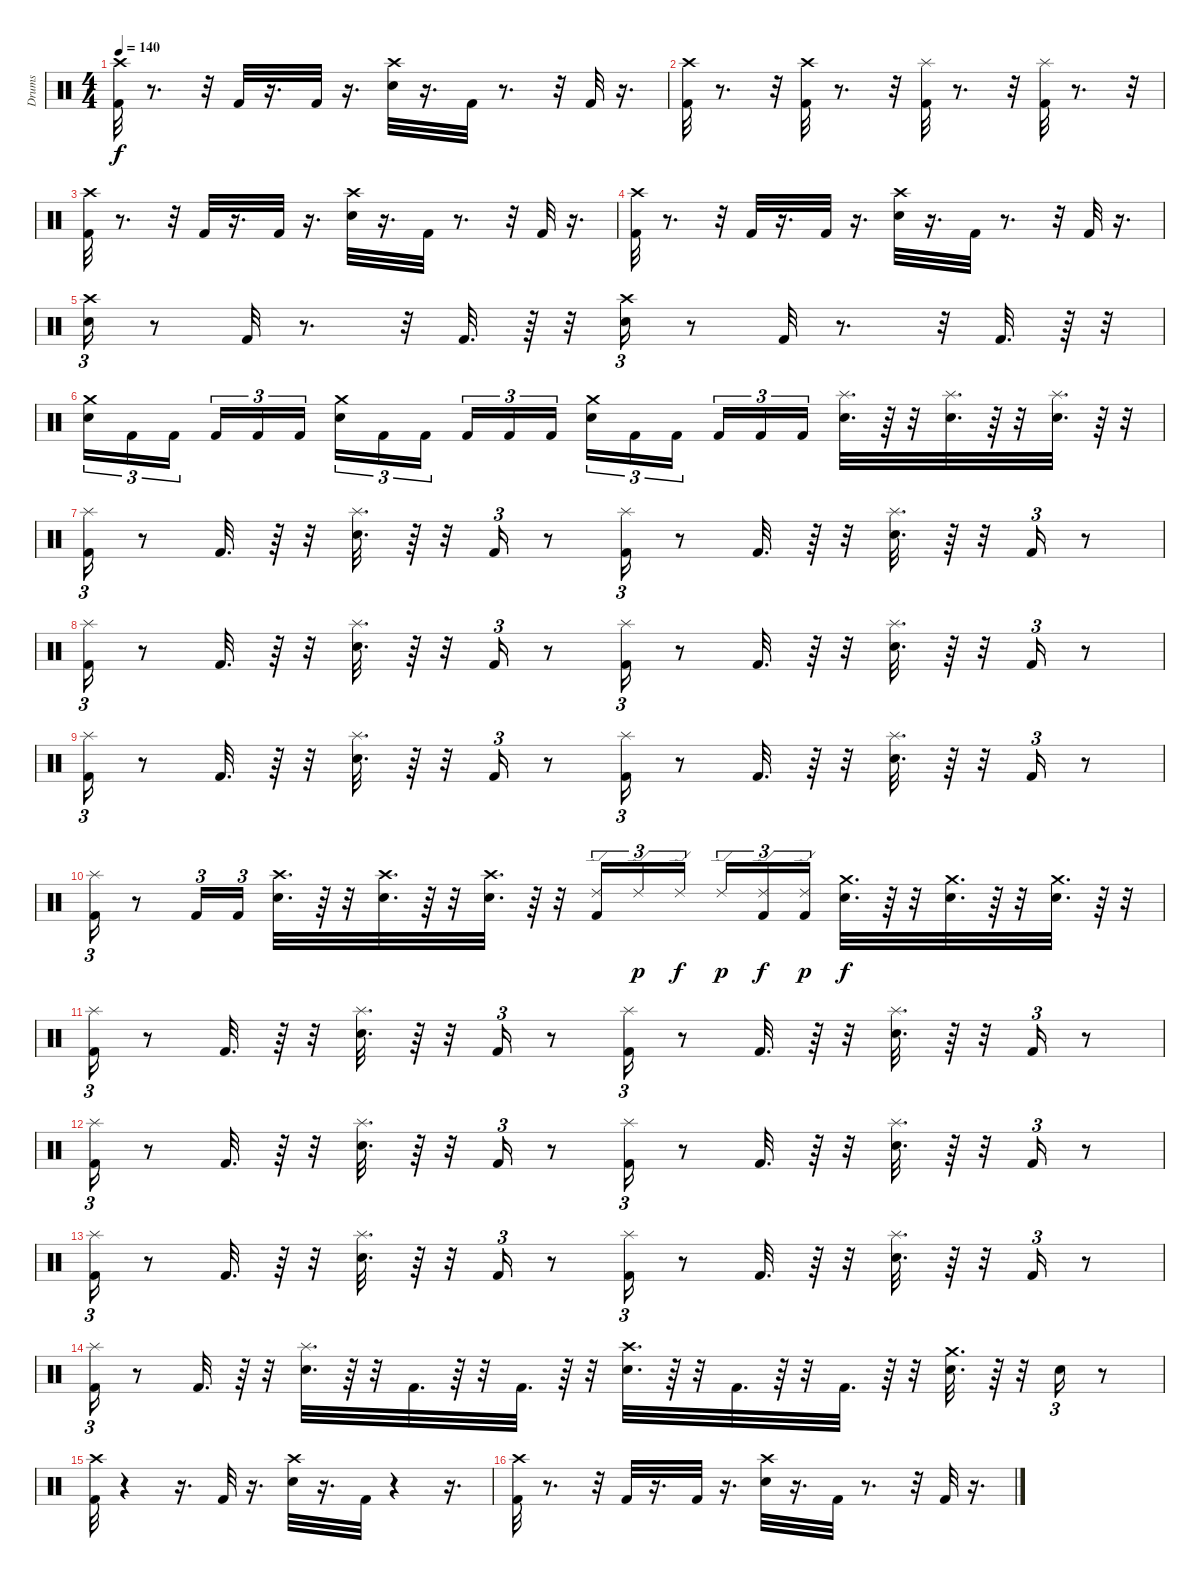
\track ("Drums" "Drums") {instrument percussion}
\staff {score}
\articulation defaults
\ts (4 4)
\tempo 140
\clef neutral
\ks c
("Kick (hit) 2" "Crash high (hit)").32{dy f} r.8{d} r.32 "Kick (hit) 2".32 r.16{d} "Kick (hit) 2".32 r.16{d} ("Electric Snare (hit)" "Crash high (hit)").32 r.16{d} "Kick (hit) 2".32 r.8{d} r.32 "Kick (hit) 2".32 r.16{d} |
("Kick (hit) 2" "Crash high (hit)").32 r.8{d} r.32 ("Kick (hit) 2" "Crash high (hit)").32 r.8{d} r.32 ("Kick (hit) 2" "Splash (hit)").32 r.8{d} r.32 ("Kick (hit) 2" "Splash (hit)").32 r.8{d} r.32 |
("Kick (hit) 2" "Crash high (hit)").32 r.8{d} r.32 "Kick (hit) 2".32 r.16{d} "Kick (hit) 2".32 r.16{d} ("Electric Snare (hit)" "Crash high (hit)").32 r.16{d} "Kick (hit) 2".32 r.8{d} r.32 "Kick (hit) 2".32 r.16{d} |
("Kick (hit) 2" "Crash high (hit)").32 r.8{d} r.32 "Kick (hit) 2".32 r.16{d} "Kick (hit) 2".32 r.16{d} ("Electric Snare (hit)" "Crash high (hit)").32 r.16{d} "Kick (hit) 2".32 r.8{d} r.32 "Kick (hit) 2".32 r.16{d} |
("Electric Snare (hit)" "Crash high (hit)").16{tu (3 2)} r.8 "Kick (hit) 2".32 r.8{d} r.32 "Kick (hit) 2".32{d} r.64 r.32 ("Electric Snare (hit)" "Crash high (hit)").16{tu (3 2)} r.8 "Kick (hit) 2".32 r.8{d} r.32 "Kick (hit) 2".32{d} r.64 r.32 |
("Electric Snare (hit)" "Crash medium (hit)").16{tu (3 2)} "Kick (hit) 2".16{tu (3 2)} "Kick (hit) 2".16{tu (3 2) beam splitsecondary} "Kick (hit) 2".16{tu (3 2)} "Kick (hit) 2".16{tu (3 2)} "Kick (hit) 2".16{tu (3 2)} ("Electric Snare (hit)" "Crash medium (hit)").16{tu (3 2)} "Kick (hit) 2".16{tu (3 2)} "Kick (hit) 2".16{tu (3 2) beam splitsecondary} "Kick (hit) 2".16{tu (3 2)} "Kick (hit) 2".16{tu (3 2)} "Kick (hit) 2".16{tu (3 2)} ("Electric Snare (hit)" "Crash medium (hit)").16{tu (3 2)} "Kick (hit) 2".16{tu (3 2)} "Kick (hit) 2".16{tu (3 2) beam splitsecondary} "Kick (hit) 2".16{tu (3 2)} "Kick (hit) 2".16{tu (3 2)} "Kick (hit) 2".16{tu (3 2)} ("Electric Snare (hit)" "Splash (hit)").32{d} r.64 r.32 ("Electric Snare (hit)" "Splash (hit)").32{d} r.64 r.32 ("Electric Snare (hit)" "Splash (hit)").32{d} r.64 r.32 |
("Kick (hit) 2" "Splash (hit)").16{tu (3 2)} r.8 "Kick (hit) 2".32{d} r.64 r.32 ("Electric Snare (hit)" "Splash (hit)").32{d} r.64 r.32 "Kick (hit) 2".16{tu (3 2)} r.8 ("Kick (hit) 2" "Splash (hit)").16{tu (3 2)} r.8 "Kick (hit) 2".32{d} r.64 r.32 ("Electric Snare (hit)" "Splash (hit)").32{d} r.64 r.32 "Kick (hit) 2".16{tu (3 2)} r.8 |
("Kick (hit) 2" "Splash (hit)").16{tu (3 2)} r.8 "Kick (hit) 2".32{d} r.64 r.32 ("Electric Snare (hit)" "Splash (hit)").32{d} r.64 r.32 "Kick (hit) 2".16{tu (3 2)} r.8 ("Kick (hit) 2" "Splash (hit)").16{tu (3 2)} r.8 "Kick (hit) 2".32{d} r.64 r.32 ("Electric Snare (hit)" "Splash (hit)").32{d} r.64 r.32 "Kick (hit) 2".16{tu (3 2)} r.8 |
("Kick (hit) 2" "Splash (hit)").16{tu (3 2)} r.8 "Kick (hit) 2".32{d} r.64 r.32 ("Electric Snare (hit)" "Splash (hit)").32{d} r.64 r.32 "Kick (hit) 2".16{tu (3 2)} r.8 ("Kick (hit) 2" "Splash (hit)").16{tu (3 2)} r.8 "Kick (hit) 2".32{d} r.64 r.32 ("Electric Snare (hit)" "Splash (hit)").32{d} r.64 r.32 "Kick (hit) 2".16{tu (3 2)} r.8 |
("Kick (hit) 2" "Splash (hit)").16{tu (3 2)} r.8 "Kick (hit) 2".16{tu (3 2)} "Kick (hit) 2".16{tu (3 2)} ("Electric Snare (hit)" "Crash high (hit)").32{d} r.64 r.32 ("Electric Snare (hit)" "Crash high (hit)").32{d} r.64 r.32 ("Electric Snare (hit)" "Crash high (hit)").32{d} r.64 r.32 ("Kick (hit) 2" "Ride (edge) 2").16{tu (3 2)} "Ride (edge) 2".16{tu (3 2) dy p} "Ride (edge) 2".16{tu (3 2) dy f beam splitsecondary} "Ride (edge) 2".16{tu (3 2) dy p} ("Kick (hit) 2" "Ride (edge) 2").16{tu (3 2) dy f} ("Kick (hit) 2" "Ride (edge) 2").16{tu (3 2) dy p} ("Electric Snare (hit)" "Crash medium (hit)").32{d dy f} r.64 r.32 ("Electric Snare (hit)" "Crash medium (hit)").32{d} r.64 r.32 ("Electric Snare (hit)" "Crash medium (hit)").32{d} r.64 r.32 |
("Kick (hit) 2" "Splash (hit)").16{tu (3 2)} r.8 "Kick (hit) 2".32{d} r.64 r.32 ("Electric Snare (hit)" "Splash (hit)").32{d} r.64 r.32 "Kick (hit) 2".16{tu (3 2)} r.8 ("Kick (hit) 2" "Splash (hit)").16{tu (3 2)} r.8 "Kick (hit) 2".32{d} r.64 r.32 ("Electric Snare (hit)" "Splash (hit)").32{d} r.64 r.32 "Kick (hit) 2".16{tu (3 2)} r.8 |
("Kick (hit) 2" "Splash (hit)").16{tu (3 2)} r.8 "Kick (hit) 2".32{d} r.64 r.32 ("Electric Snare (hit)" "Splash (hit)").32{d} r.64 r.32 "Kick (hit) 2".16{tu (3 2)} r.8 ("Kick (hit) 2" "Splash (hit)").16{tu (3 2)} r.8 "Kick (hit) 2".32{d} r.64 r.32 ("Electric Snare (hit)" "Splash (hit)").32{d} r.64 r.32 "Kick (hit) 2".16{tu (3 2)} r.8 |
("Kick (hit) 2" "Splash (hit)").16{tu (3 2)} r.8 "Kick (hit) 2".32{d} r.64 r.32 ("Electric Snare (hit)" "Splash (hit)").32{d} r.64 r.32 "Kick (hit) 2".16{tu (3 2)} r.8 ("Kick (hit) 2" "Splash (hit)").16{tu (3 2)} r.8 "Kick (hit) 2".32{d} r.64 r.32 ("Electric Snare (hit)" "Splash (hit)").32{d} r.64 r.32 "Kick (hit) 2".16{tu (3 2)} r.8 |
("Kick (hit) 2" "Splash (hit)").16{tu (3 2)} r.8 "Kick (hit) 2".32{d} r.64 r.32 ("Electric Snare (hit)" "Splash (hit)").32{d} r.64 r.32 "Kick (hit) 2".32{d} r.64 r.32 "Kick (hit) 2".32{d} r.64 r.32 ("Electric Snare (hit)" "Crash high (hit)").32{d} r.64 r.32 "Kick (hit) 2".32{d} r.64 r.32 "Kick (hit) 2".32{d} r.64 r.32 ("Electric Snare (hit)" "Crash medium (hit)").32{d} r.64 r.32 "Electric Snare (hit)".16{tu (3 2)} r.8 |
("Kick (hit) 2" "Crash high (hit)").32 r.4 r.16{d} "Kick (hit) 2".32 r.16{d} ("Electric Snare (hit)" "Crash high (hit)").32 r.16{d} "Kick (hit) 2".32 r.4 r.16{d} |
("Kick (hit) 2" "Crash high (hit)").32 r.8{d} r.32 "Kick (hit) 2".32 r.16{d} "Kick (hit) 2".32 r.16{d} ("Electric Snare (hit)" "Crash high (hit)").32 r.16{d} "Kick (hit) 2".32 r.8{d} r.32 "Kick (hit) 2".32 r.16{d}
